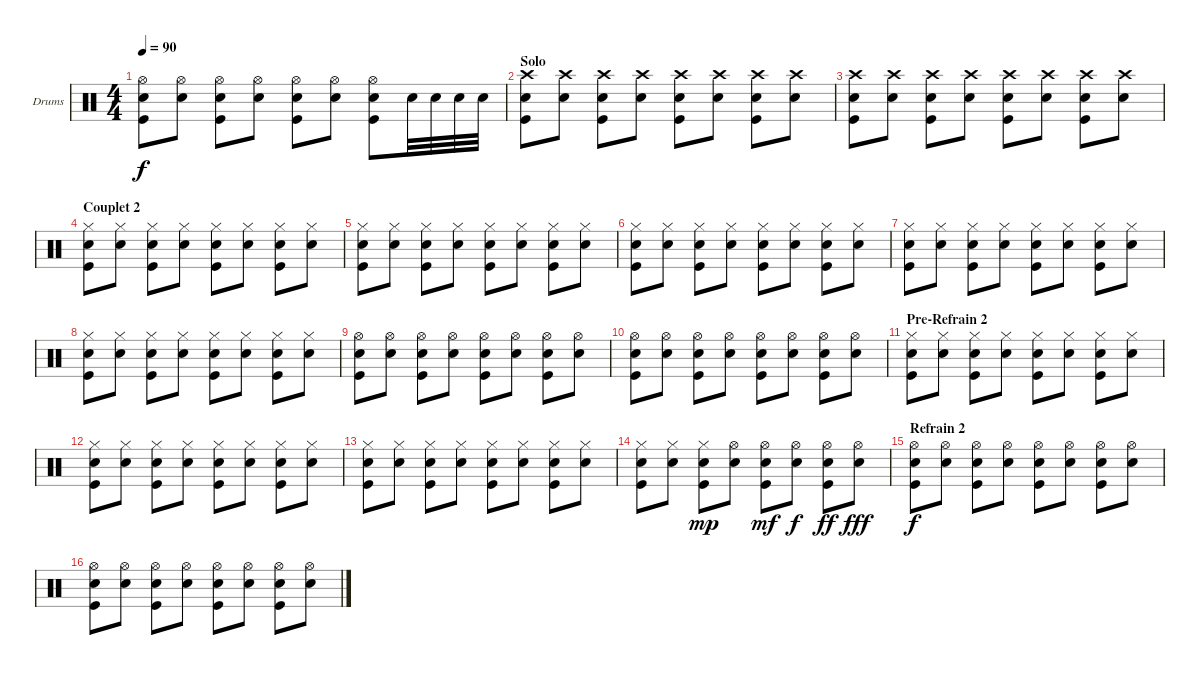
\bracketExtendMode groupsimilarinstruments
\firstSystemTrackNameOrientation horizontal
\otherSystemsTrackNameOrientation horizontal
\track ("Drumkit" "Drums") {instrument percussion}
\staff {score}
\articulation defaults
\ts (4 4)
\tempo 90
\clef neutral
\ks c
("Hi-Hat (open)" "Snare (hit) 2" "Kick (hit)").8{dy f} ("Hi-Hat (open)" "Snare (hit) 2").8 ("Hi-Hat (open)" "Snare (hit) 2" "Kick (hit)").8 ("Hi-Hat (open)" "Snare (hit) 2").8 ("Hi-Hat (open)" "Snare (hit) 2" "Kick (hit)").8 ("Hi-Hat (open)" "Snare (hit) 2").8 ("Hi-Hat (open)" "Snare (hit) 2" "Kick (hit)").8 "Snare (hit) 2".32 "Snare (hit) 2".32 "Snare (hit) 2".32 "Snare (hit) 2".32 |
\section ("" "Solo")
("Crash high (hit)" "Snare (hit) 2" "Kick (hit)").8 ("Crash high (hit)" "Snare (hit) 2").8 ("Crash high (hit)" "Snare (hit) 2" "Kick (hit)").8 ("Crash high (hit)" "Snare (hit) 2").8 ("Crash high (hit)" "Snare (hit) 2" "Kick (hit)").8 ("Crash high (hit)" "Snare (hit) 2").8 ("Crash high (hit)" "Snare (hit) 2" "Kick (hit)").8 ("Crash high (hit)" "Snare (hit) 2").8 |
("Crash high (hit)" "Snare (hit) 2" "Kick (hit)").8 ("Crash high (hit)" "Snare (hit) 2").8 ("Crash high (hit)" "Snare (hit) 2" "Kick (hit)").8 ("Crash high (hit)" "Snare (hit) 2").8 ("Crash high (hit)" "Snare (hit) 2" "Kick (hit)").8 ("Crash high (hit)" "Snare (hit) 2").8 ("Crash high (hit)" "Snare (hit) 2" "Kick (hit)").8 ("Crash high (hit)" "Snare (hit) 2").8 |
\section ("" "Couplet 2")
("Hi-Hat (closed)" "Snare (hit) 2" "Kick (hit)").8 ("Hi-Hat (closed)" "Snare (hit) 2").8 ("Hi-Hat (closed)" "Snare (hit) 2" "Kick (hit)").8 ("Hi-Hat (closed)" "Snare (hit) 2").8 ("Hi-Hat (closed)" "Snare (hit) 2" "Kick (hit)").8 ("Hi-Hat (closed)" "Snare (hit) 2").8 ("Hi-Hat (closed)" "Snare (hit) 2" "Kick (hit)").8 ("Hi-Hat (closed)" "Snare (hit) 2").8 |
("Hi-Hat (closed)" "Snare (hit) 2" "Kick (hit)").8 ("Hi-Hat (closed)" "Snare (hit) 2").8 ("Hi-Hat (closed)" "Snare (hit) 2" "Kick (hit)").8 ("Hi-Hat (closed)" "Snare (hit) 2").8 ("Hi-Hat (closed)" "Snare (hit) 2" "Kick (hit)").8 ("Hi-Hat (closed)" "Snare (hit) 2").8 ("Hi-Hat (closed)" "Snare (hit) 2" "Kick (hit)").8 ("Hi-Hat (closed)" "Snare (hit) 2").8 |
("Hi-Hat (closed)" "Snare (hit) 2" "Kick (hit)").8 ("Hi-Hat (closed)" "Snare (hit) 2").8 ("Hi-Hat (closed)" "Snare (hit) 2" "Kick (hit)").8 ("Hi-Hat (closed)" "Snare (hit) 2").8 ("Hi-Hat (closed)" "Snare (hit) 2" "Kick (hit)").8 ("Hi-Hat (closed)" "Snare (hit) 2").8 ("Hi-Hat (closed)" "Snare (hit) 2" "Kick (hit)").8 ("Hi-Hat (closed)" "Snare (hit) 2").8 |
("Hi-Hat (closed)" "Snare (hit) 2" "Kick (hit)").8 ("Hi-Hat (closed)" "Snare (hit) 2").8 ("Hi-Hat (closed)" "Snare (hit) 2" "Kick (hit)").8 ("Hi-Hat (closed)" "Snare (hit) 2").8 ("Hi-Hat (closed)" "Snare (hit) 2" "Kick (hit)").8 ("Hi-Hat (closed)" "Snare (hit) 2").8 ("Hi-Hat (closed)" "Snare (hit) 2" "Kick (hit)").8 ("Hi-Hat (closed)" "Snare (hit) 2").8 |
("Hi-Hat (closed)" "Snare (hit) 2" "Kick (hit)").8 ("Hi-Hat (closed)" "Snare (hit) 2").8 ("Hi-Hat (closed)" "Snare (hit) 2" "Kick (hit)").8 ("Hi-Hat (closed)" "Snare (hit) 2").8 ("Hi-Hat (closed)" "Snare (hit) 2" "Kick (hit)").8 ("Hi-Hat (closed)" "Snare (hit) 2").8 ("Hi-Hat (closed)" "Snare (hit) 2" "Kick (hit)").8 ("Hi-Hat (closed)" "Snare (hit) 2").8 |
("Hi-Hat (open)" "Snare (hit) 2" "Kick (hit)").8 ("Hi-Hat (open)" "Snare (hit) 2").8 ("Hi-Hat (open)" "Snare (hit) 2" "Kick (hit)").8 ("Hi-Hat (open)" "Snare (hit) 2").8 ("Hi-Hat (open)" "Snare (hit) 2" "Kick (hit)").8 ("Hi-Hat (open)" "Snare (hit) 2").8 ("Hi-Hat (open)" "Snare (hit) 2" "Kick (hit)").8 ("Hi-Hat (open)" "Snare (hit) 2").8 |
("Hi-Hat (open)" "Snare (hit) 2" "Kick (hit)").8 ("Hi-Hat (open)" "Snare (hit) 2").8 ("Hi-Hat (open)" "Snare (hit) 2" "Kick (hit)").8 ("Hi-Hat (open)" "Snare (hit) 2").8 ("Hi-Hat (open)" "Snare (hit) 2" "Kick (hit)").8 ("Hi-Hat (open)" "Snare (hit) 2").8 ("Hi-Hat (open)" "Snare (hit) 2" "Kick (hit)").8 ("Hi-Hat (open)" "Snare (hit) 2").8 |
\section ("" "Pre-Refrain 2")
("Hi-Hat (closed)" "Snare (hit) 2" "Kick (hit)").8 ("Hi-Hat (closed)" "Snare (hit) 2").8 ("Hi-Hat (closed)" "Snare (hit) 2" "Kick (hit)").8 ("Hi-Hat (closed)" "Snare (hit) 2").8 ("Hi-Hat (closed)" "Snare (hit) 2" "Kick (hit)").8 ("Hi-Hat (closed)" "Snare (hit) 2").8 ("Hi-Hat (closed)" "Snare (hit) 2" "Kick (hit)").8 ("Hi-Hat (closed)" "Snare (hit) 2").8 |
("Hi-Hat (closed)" "Snare (hit) 2" "Kick (hit)").8 ("Hi-Hat (closed)" "Snare (hit) 2").8 ("Hi-Hat (closed)" "Snare (hit) 2" "Kick (hit)").8 ("Hi-Hat (closed)" "Snare (hit) 2").8 ("Hi-Hat (closed)" "Snare (hit) 2" "Kick (hit)").8 ("Hi-Hat (closed)" "Snare (hit) 2").8 ("Hi-Hat (closed)" "Snare (hit) 2" "Kick (hit)").8 ("Hi-Hat (closed)" "Snare (hit) 2").8 |
("Hi-Hat (closed)" "Snare (hit) 2" "Kick (hit)").8 ("Hi-Hat (closed)" "Snare (hit) 2").8 ("Hi-Hat (closed)" "Snare (hit) 2" "Kick (hit)").8 ("Hi-Hat (closed)" "Snare (hit) 2").8 ("Hi-Hat (closed)" "Snare (hit) 2" "Kick (hit)").8 ("Hi-Hat (closed)" "Snare (hit) 2").8 ("Hi-Hat (closed)" "Snare (hit) 2" "Kick (hit)").8 ("Hi-Hat (closed)" "Snare (hit) 2").8 |
("Hi-Hat (closed)" "Snare (hit) 2" "Kick (hit)").8 ("Hi-Hat (closed)" "Snare (hit) 2").8 ("Hi-Hat (closed)" "Snare (hit) 2" "Kick (hit)").8{dy mp} ("Hi-Hat (open)" "Snare (hit) 2").8 ("Hi-Hat (open)" "Snare (hit) 2" "Kick (hit)").8{dy mf} ("Hi-Hat (open)" "Snare (hit) 2").8{dy f} ("Hi-Hat (open)" "Snare (hit) 2" "Kick (hit)").8{dy ff} ("Hi-Hat (open)" "Snare (hit) 2").8{dy fff} |
\section ("" "Refrain 2 ")
("Hi-Hat (open)" "Snare (hit) 2" "Kick (hit)").8{dy f} ("Hi-Hat (open)" "Snare (hit) 2").8 ("Hi-Hat (open)" "Snare (hit) 2" "Kick (hit)").8 ("Hi-Hat (open)" "Snare (hit) 2").8 ("Hi-Hat (open)" "Snare (hit) 2" "Kick (hit)").8 ("Hi-Hat (open)" "Snare (hit) 2").8 ("Hi-Hat (open)" "Snare (hit) 2" "Kick (hit)").8 ("Hi-Hat (open)" "Snare (hit) 2").8 |
("Hi-Hat (open)" "Snare (hit) 2" "Kick (hit)").8 ("Hi-Hat (open)" "Snare (hit) 2").8 ("Hi-Hat (open)" "Snare (hit) 2" "Kick (hit)").8 ("Hi-Hat (open)" "Snare (hit) 2").8 ("Hi-Hat (open)" "Snare (hit) 2" "Kick (hit)").8 ("Hi-Hat (open)" "Snare (hit) 2").8 ("Hi-Hat (open)" "Snare (hit) 2" "Kick (hit)").8 ("Hi-Hat (open)" "Snare (hit) 2").8
